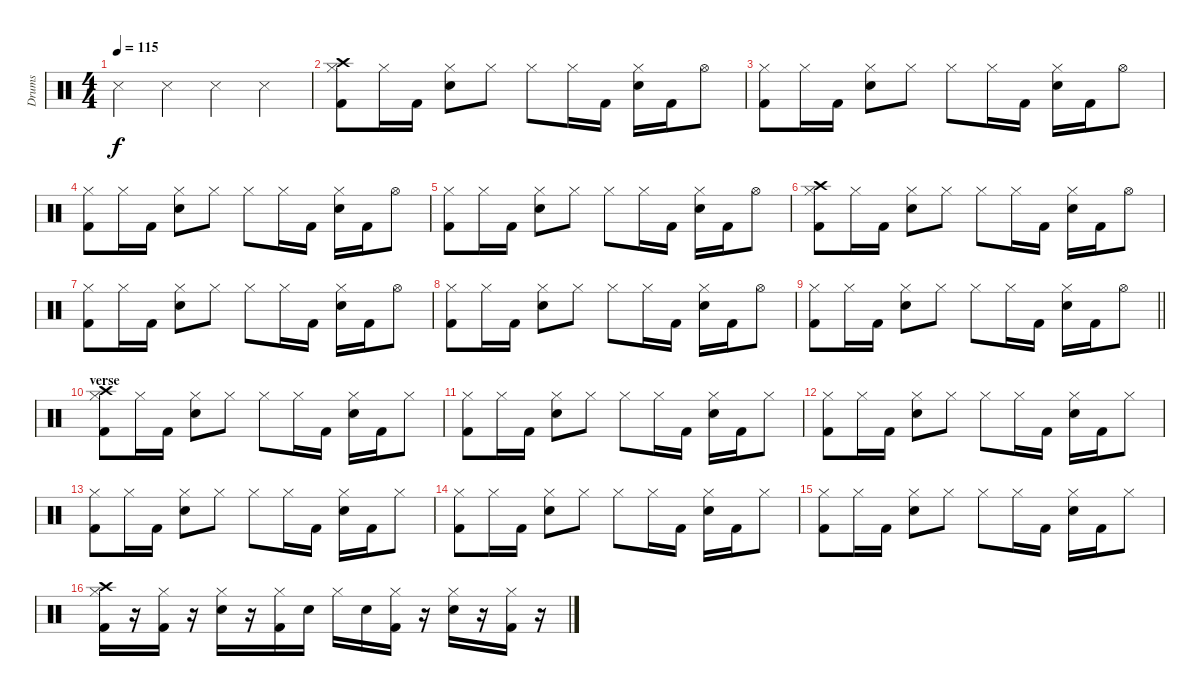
\track ("Drums" "Drums") {instrument percussion}
\staff {score}
\articulation defaults
\ts (4 4)
\tempo 115
\clef neutral
\ks c "Snare (side stick) 3".4{dy f} "Snare (side stick) 3".4 "Snare (side stick) 3".4 "Snare (side stick) 3".4
|
("Crash high (hit)" "Hi-Hat (closed)" "Kick (hit) 2").8 "Hi-Hat (closed)".16 "Kick (hit) 2".16 ("Hi-Hat (closed)" "Snare (hit) 2").8 "Hi-Hat (closed)".8 "Hi-Hat (closed)".8 "Hi-Hat (closed)".16 "Kick (hit) 2".16 ("Hi-Hat (closed)" "Snare (hit) 2").16 "Kick (hit) 2".16 "Hi-Hat (open)".8 |
("Hi-Hat (closed)" "Kick (hit) 2").8 "Hi-Hat (closed)".16 "Kick (hit) 2".16 ("Hi-Hat (closed)" "Snare (hit) 2").8 "Hi-Hat (closed)".8 "Hi-Hat (closed)".8 "Hi-Hat (closed)".16 "Kick (hit) 2".16 ("Hi-Hat (closed)" "Snare (hit) 2").16 "Kick (hit) 2".16 "Hi-Hat (open)".8 |
("Hi-Hat (closed)" "Kick (hit) 2").8 "Hi-Hat (closed)".16 "Kick (hit) 2".16 ("Hi-Hat (closed)" "Snare (hit) 2").8 "Hi-Hat (closed)".8 "Hi-Hat (closed)".8 "Hi-Hat (closed)".16 "Kick (hit) 2".16 ("Hi-Hat (closed)" "Snare (hit) 2").16 "Kick (hit) 2".16 "Hi-Hat (open)".8 |
("Hi-Hat (closed)" "Kick (hit) 2").8 "Hi-Hat (closed)".16 "Kick (hit) 2".16 ("Hi-Hat (closed)" "Snare (hit) 2").8 "Hi-Hat (closed)".8 "Hi-Hat (closed)".8 "Hi-Hat (closed)".16 "Kick (hit) 2".16 ("Hi-Hat (closed)" "Snare (hit) 2").16 "Kick (hit) 2".16 "Hi-Hat (open)".8 |
("Crash high (hit)" "Hi-Hat (closed)" "Kick (hit) 2").8 "Hi-Hat (closed)".16 "Kick (hit) 2".16 ("Hi-Hat (closed)" "Snare (hit) 2").8 "Hi-Hat (closed)".8 "Hi-Hat (closed)".8 "Hi-Hat (closed)".16 "Kick (hit) 2".16 ("Hi-Hat (closed)" "Snare (hit) 2").16 "Kick (hit) 2".16 "Hi-Hat (open)".8 |
("Hi-Hat (closed)" "Kick (hit) 2").8 "Hi-Hat (closed)".16 "Kick (hit) 2".16 ("Hi-Hat (closed)" "Snare (hit) 2").8 "Hi-Hat (closed)".8 "Hi-Hat (closed)".8 "Hi-Hat (closed)".16 "Kick (hit) 2".16 ("Hi-Hat (closed)" "Snare (hit) 2").16 "Kick (hit) 2".16 "Hi-Hat (open)".8 |
("Hi-Hat (closed)" "Kick (hit) 2").8 "Hi-Hat (closed)".16 "Kick (hit) 2".16 ("Hi-Hat (closed)" "Snare (hit) 2").8 "Hi-Hat (closed)".8 "Hi-Hat (closed)".8 "Hi-Hat (closed)".16 "Kick (hit) 2".16 ("Hi-Hat (closed)" "Snare (hit) 2").16 "Kick (hit) 2".16 "Hi-Hat (open)".8 |
\barLineRight lightlight
("Hi-Hat (closed)" "Kick (hit) 2").8 "Hi-Hat (closed)".16 "Kick (hit) 2".16 ("Hi-Hat (closed)" "Snare (hit) 2").8 "Hi-Hat (closed)".8 "Hi-Hat (closed)".8 "Hi-Hat (closed)".16 "Kick (hit) 2".16 ("Hi-Hat (closed)" "Snare (hit) 2").16 "Kick (hit) 2".16 "Hi-Hat (open)".8 |
\section ("" "verse")
("Crash high (hit)" "Hi-Hat (closed)" "Kick (hit) 2").8 "Hi-Hat (closed)".16 "Kick (hit) 2".16 ("Hi-Hat (closed)" "Snare (hit) 2").8 "Hi-Hat (closed)".8 "Hi-Hat (closed)".8 "Hi-Hat (closed)".16 "Kick (hit) 2".16 ("Hi-Hat (closed)" "Snare (hit) 2").16 "Kick (hit) 2".16 "Hi-Hat (closed)".8 |
("Hi-Hat (closed)" "Kick (hit) 2").8 "Hi-Hat (closed)".16 "Kick (hit) 2".16 ("Hi-Hat (closed)" "Snare (hit) 2").8 "Hi-Hat (closed)".8 "Hi-Hat (closed)".8 "Hi-Hat (closed)".16 "Kick (hit) 2".16 ("Hi-Hat (closed)" "Snare (hit) 2").16 "Kick (hit) 2".16 "Hi-Hat (closed)".8 |
("Hi-Hat (closed)" "Kick (hit) 2").8 "Hi-Hat (closed)".16 "Kick (hit) 2".16 ("Hi-Hat (closed)" "Snare (hit) 2").8 "Hi-Hat (closed)".8 "Hi-Hat (closed)".8 "Hi-Hat (closed)".16 "Kick (hit) 2".16 ("Hi-Hat (closed)" "Snare (hit) 2").16 "Kick (hit) 2".16 "Hi-Hat (closed)".8 |
("Hi-Hat (closed)" "Kick (hit) 2").8 "Hi-Hat (closed)".16 "Kick (hit) 2".16 ("Hi-Hat (closed)" "Snare (hit) 2").8 "Hi-Hat (closed)".8 "Hi-Hat (closed)".8 "Hi-Hat (closed)".16 "Kick (hit) 2".16 ("Hi-Hat (closed)" "Snare (hit) 2").16 "Kick (hit) 2".16 "Hi-Hat (closed)".8 |
("Hi-Hat (closed)" "Kick (hit) 2").8 "Hi-Hat (closed)".16 "Kick (hit) 2".16 ("Hi-Hat (closed)" "Snare (hit) 2").8 "Hi-Hat (closed)".8 "Hi-Hat (closed)".8 "Hi-Hat (closed)".16 "Kick (hit) 2".16 ("Hi-Hat (closed)" "Snare (hit) 2").16 "Kick (hit) 2".16 "Hi-Hat (closed)".8 |
("Hi-Hat (closed)" "Kick (hit) 2").8 "Hi-Hat (closed)".16 "Kick (hit) 2".16 ("Hi-Hat (closed)" "Snare (hit) 2").8 "Hi-Hat (closed)".8 "Hi-Hat (closed)".8 "Hi-Hat (closed)".16 "Kick (hit) 2".16 ("Hi-Hat (closed)" "Snare (hit) 2").16 "Kick (hit) 2".16 "Hi-Hat (closed)".8 |
("Crash high (hit)" "Hi-Hat (closed)" "Kick (hit) 2").16 r.16 ("Hi-Hat (closed)" "Kick (hit) 2").16 r.16 ("Hi-Hat (closed)" "Snare (hit) 2").16 r.16 ("Hi-Hat (closed)" "Kick (hit) 2").16 "Snare (hit) 2".16 "Hi-Hat (closed)".16 "Snare (hit) 2".16 ("Hi-Hat (closed)" "Kick (hit) 2").16 r.16 ("Hi-Hat (closed)" "Snare (hit) 2").16 r.16 ("Hi-Hat (closed)" "Kick (hit) 2").16 r.16
